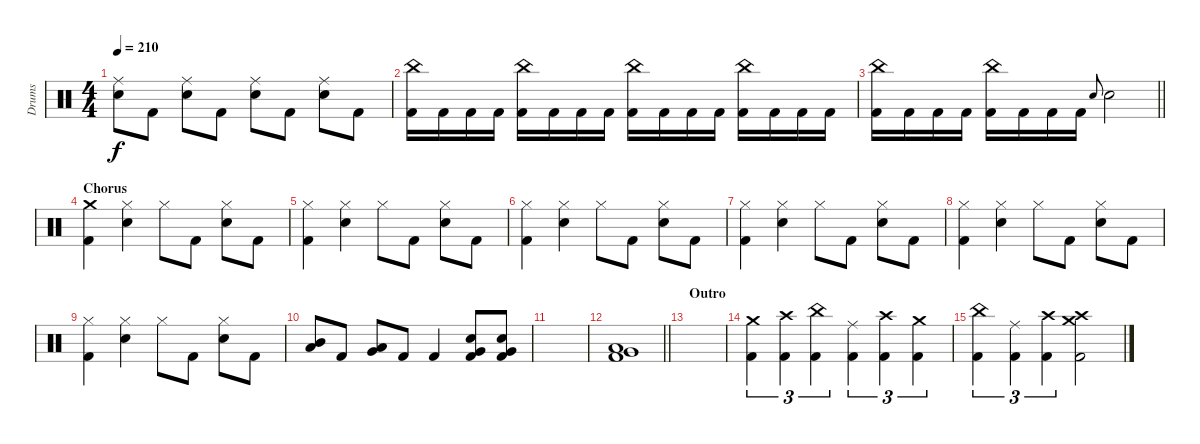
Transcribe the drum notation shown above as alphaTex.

\track ("Drums" "Drums") {instrument percussion}
\staff {score}
\articulation defaults
\ts (4 4)
\tempo 210
\clef neutral
\ks c
("Snare (hit) 2" "Ride (middle)").8{dy f} "Kick (hit) 2".8 ("Snare (hit) 2" "Ride (middle)").8 "Kick (hit) 2".8 ("Snare (hit) 2" "Ride (middle)").8 "Kick (hit) 2".8 ("Snare (hit) 2" "Ride (middle)").8 "Kick (hit) 2".8 |
("Kick (hit) 2" "China (hit)").16 "Kick (hit) 2".16 "Kick (hit) 2".16 "Kick (hit) 2".16 ("Kick (hit) 2" "China (hit)").16 "Kick (hit) 2".16 "Kick (hit) 2".16 "Kick (hit) 2".16 ("Kick (hit) 2" "China (hit)").16 "Kick (hit) 2".16 "Kick (hit) 2".16 "Kick (hit) 2".16 ("Kick (hit) 2" "China (hit)").16 "Kick (hit) 2".16 "Kick (hit) 2".16 "Kick (hit) 2".16 |
\barLineRight lightlight
("Kick (hit) 2" "China (hit)").16 "Kick (hit) 2".16 "Kick (hit) 2".16 "Kick (hit) 2".16 ("Kick (hit) 2" "China (hit)").16 "Kick (hit) 2".16 "Kick (hit) 2".16 "Kick (hit) 2".16 "Snare (hit) 2".8{gr onbeat} "Snare (hit) 2".2 |
\section ("" "Chorus")
("Kick (hit) 2" "Crash medium (hit)").4 ("Snare (hit) 2" "Hi-Hat (closed)").4 "Hi-Hat (closed)".8 "Kick (hit) 2".8 ("Snare (hit) 2" "Hi-Hat (closed)").8 "Kick (hit) 2".8 |
("Kick (hit) 2" "Hi-Hat (closed)").4 ("Snare (hit) 2" "Hi-Hat (closed)").4 "Hi-Hat (closed)".8 "Kick (hit) 2".8 ("Snare (hit) 2" "Hi-Hat (closed)").8 "Kick (hit) 2".8 |
("Kick (hit) 2" "Hi-Hat (closed)").4 ("Snare (hit) 2" "Hi-Hat (closed)").4 "Hi-Hat (closed)".8 "Kick (hit) 2".8 ("Snare (hit) 2" "Hi-Hat (closed)").8 "Kick (hit) 2".8 |
("Kick (hit) 2" "Hi-Hat (closed)").4 ("Snare (hit) 2" "Hi-Hat (closed)").4 "Hi-Hat (closed)".8 "Kick (hit) 2".8 ("Snare (hit) 2" "Hi-Hat (closed)").8 "Kick (hit) 2".8 |
("Kick (hit) 2" "Hi-Hat (closed)").4 ("Snare (hit) 2" "Hi-Hat (closed)").4 "Hi-Hat (closed)".8 "Kick (hit) 2".8 ("Snare (hit) 2" "Hi-Hat (closed)").8 "Kick (hit) 2".8 |
("Kick (hit) 2" "Hi-Hat (closed)").4 ("Snare (hit) 2" "Hi-Hat (closed)").4 "Hi-Hat (closed)".8 "Kick (hit) 2".8 ("Snare (hit) 2" "Hi-Hat (closed)").8 "Kick (hit) 2".8 |
("Mid Tom (hit)" "Low Tom (hit)").8 "Kick (hit) 2".8 ("Low Tom (hit)" "Very Low Tom (hit)").8 "Kick (hit) 2".8 "Kick (hit) 2".4 ("Kick (hit) 2" "Very Low Tom (hit)" "Snare (hit) 2").8 ("Kick (hit) 2" "Very Low Tom (hit)" "Snare (hit) 2").8 |
|
\barLineRight lightlight
("Kick (hit) 2" "Very Low Tom (hit)" "Low Floor Tom (hit)").1 |
\section ("" "Outro")
|
("Kick (hit) 2" "Crash medium (hit)").4{tu (3 2)} ("Kick (hit) 2" "Crash high (hit)").4{tu (3 2)} ("Kick (hit) 2" "China (hit)").4{tu (3 2)} ("Kick (hit) 2" "Ride (middle)").4{tu (3 2)} ("Kick (hit) 2" "Crash high (hit)").4{tu (3 2)} ("Kick (hit) 2" "Crash medium (hit)").4{tu (3 2)} |
("Kick (hit) 2" "China (hit)").4{tu (3 2)} ("Kick (hit) 2" "Ride (middle)").4{tu (3 2)} ("Kick (hit) 2" "Crash high (hit)").4{tu (3 2)} ("Kick (hit) 2" "Crash high (hit)" "Crash medium (hit)").2
